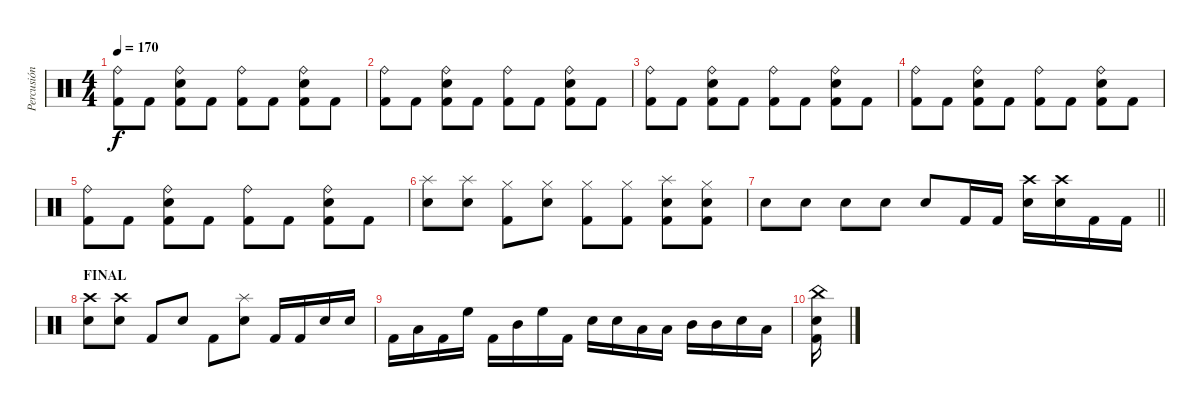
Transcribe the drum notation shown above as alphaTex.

\track ("Percusión" "Percusión") {instrument percussion}
\staff {score}
\articulation defaults
\ts (4 4)
\tempo 170
\clef neutral
\ks c
("Ride (bell)" "Kick (hit) 2").8{dy f} "Kick (hit) 2".8 ("Ride (bell)" "Electric Snare (hit)" "Kick (hit) 2").8 "Kick (hit) 2".8 ("Ride (bell)" "Kick (hit) 2").8 "Kick (hit) 2".8 ("Ride (bell)" "Electric Snare (hit)" "Kick (hit) 2").8 "Kick (hit) 2".8 |
("Ride (bell)" "Kick (hit) 2").8 "Kick (hit) 2".8 ("Ride (bell)" "Electric Snare (hit)" "Kick (hit) 2").8 "Kick (hit) 2".8 ("Ride (bell)" "Kick (hit) 2").8 "Kick (hit) 2".8 ("Ride (bell)" "Electric Snare (hit)" "Kick (hit) 2").8 "Kick (hit) 2".8 |
("Ride (bell)" "Kick (hit) 2").8 "Kick (hit) 2".8 ("Ride (bell)" "Electric Snare (hit)" "Kick (hit) 2").8 "Kick (hit) 2".8 ("Ride (bell)" "Kick (hit) 2").8 "Kick (hit) 2".8 ("Ride (bell)" "Electric Snare (hit)" "Kick (hit) 2").8 "Kick (hit) 2".8 |
("Ride (bell)" "Kick (hit) 2").8 "Kick (hit) 2".8 ("Ride (bell)" "Electric Snare (hit)" "Kick (hit) 2").8 "Kick (hit) 2".8 ("Ride (bell)" "Kick (hit) 2").8 "Kick (hit) 2".8 ("Ride (bell)" "Electric Snare (hit)" "Kick (hit) 2").8 "Kick (hit) 2".8 |
("Ride (bell)" "Kick (hit) 2").8 "Kick (hit) 2".8 ("Ride (bell)" "Electric Snare (hit)" "Kick (hit) 2").8 "Kick (hit) 2".8 ("Ride (bell)" "Kick (hit) 2").8 "Kick (hit) 2".8 ("Ride (bell)" "Electric Snare (hit)" "Kick (hit) 2").8 "Kick (hit) 2".8 |
("Splash (hit)" "Electric Snare (hit)").8 ("Splash (hit)" "Electric Snare (hit)").8 ("Hi-Hat (closed)" "Kick (hit) 2").8 ("Hi-Hat (closed)" "Electric Snare (hit)").8 ("Hi-Hat (closed)" "Kick (hit) 2").8 ("Hi-Hat (closed)" "Kick (hit) 2").8 ("Splash (hit)" "Electric Snare (hit)" "Kick (hit) 2").8 ("Hi-Hat (closed)" "Electric Snare (hit)" "Kick (hit) 2").8 |
\barLineRight lightlight "Electric Snare (hit)".8 "Electric Snare (hit)".8 "Electric Snare (hit)".8 "Electric Snare (hit)".8 "Electric Snare (hit)".8 "Kick (hit) 2".16 "Kick (hit) 2".16
("Crash high (hit)" "Electric Snare (hit)").16 ("Crash high (hit)" "Electric Snare (hit)").16 "Kick (hit) 2".16 "Kick (hit) 2".16 |
\section ("" "FINAL")
("Crash high (hit)" "Electric Snare (hit)").8 ("Crash high (hit)" "Electric Snare (hit)").8 "Kick (hit) 2".8 "Electric Snare (hit)".8 "Kick (hit) 2".8 ("Splash (hit)" "Electric Snare (hit)").8 "Kick (hit) 2".16 "Kick (hit) 2".16 "Electric Snare (hit)".16 "Electric Snare (hit)".16 |
"Kick (hit) 2".16 "Low Floor Tom (hit)".16 "Kick (hit) 2".16 "High Floor Tom (hit)".16 "Kick (hit) 2".16 "Mid Tom (hit)".16 "High Floor Tom (hit)".16 "Kick (hit) 2".16 "Electric Snare (hit)".16 "Electric Snare (hit)".16 "Low Tom (hit)".16 "Low Tom (hit)".16 "Mid Tom (hit)".16 "Mid Tom (hit)".16 "Electric Snare (hit)".16 "Low Tom (hit)".16 |
("China (hit)" "Electric Snare (hit)" "Kick (hit) 2").16
